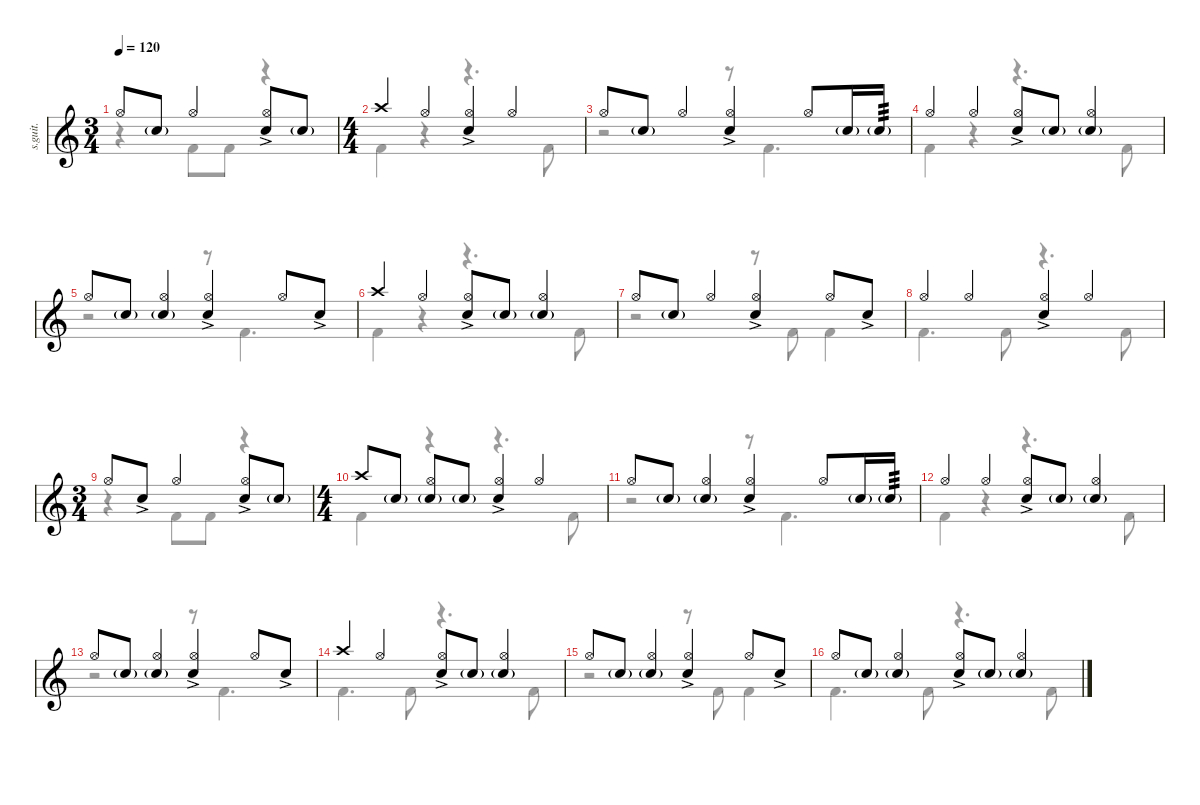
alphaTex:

\defaultSystemsLayout 4
\hideDynamics
\bracketExtendMode nobrackets
\track ("Percussion" "s.guit.") {instrument percussion}
\staff {score}
\articulation defaults
\voice
\ts (3 4)
\beaming (8 2 2 2 2)
\tempo 120
\clef g2
\ks c "Hi-Hat (open)".8{lyrics (0 "") lyrics (1 "") lyrics (2 "") lyrics (3 "") lyrics (4 "") dy mf} "Snare (hit) 2"{g}.8{lyrics (0 "") lyrics (1 "") lyrics (2 "") lyrics (3 "") lyrics (4 "") dy f} "Hi-Hat (open)".4{lyrics (0 "") lyrics (1 "") lyrics (2 "") lyrics (3 "") lyrics (4 "") dy mf}
("Snare (hit) 2"{ac} "Hi-Hat (open)").8{lyrics (0 "") lyrics (1 "") lyrics (2 "") lyrics (3 "") lyrics (4 "")} "Snare (hit) 2"{g}.8{lyrics (0 "") lyrics (1 "") lyrics (2 "") lyrics (3 "") lyrics (4 "") dy f} |
\ts (4 4)
\beaming (8 2 2 2 2)
"Crash high (hit)".4{lyrics (0 "") lyrics (1 "") lyrics (2 "") lyrics (3 "") lyrics (4 "") dy mf} "Hi-Hat (open)".4{lyrics (0 "") lyrics (1 "") lyrics (2 "") lyrics (3 "") lyrics (4 "")} ("Hi-Hat (open)" "Snare (hit) 2"{ac}).4{lyrics (0 "") lyrics (1 "") lyrics (2 "") lyrics (3 "") lyrics (4 "")} "Hi-Hat (open)".4{lyrics (0 "") lyrics (1 "") lyrics (2 "") lyrics (3 "") lyrics (4 "")} |
"Hi-Hat (open)".8{lyrics (0 "") lyrics (1 "") lyrics (2 "") lyrics (3 "") lyrics (4 "")} "Snare (hit) 2"{g}.8{lyrics (0 "") lyrics (1 "") lyrics (2 "") lyrics (3 "") lyrics (4 "") dy f} "Hi-Hat (open)".4{lyrics (0 "") lyrics (1 "") lyrics (2 "") lyrics (3 "") lyrics (4 "") dy mf} ("Snare (hit) 2"{ac} "Hi-Hat (open)").4{lyrics (0 "") lyrics (1 "") lyrics (2 "") lyrics (3 "") lyrics (4 "")} "Hi-Hat (open)".8{lyrics (0 "") lyrics (1 "") lyrics (2 "") lyrics (3 "") lyrics (4 "")} "Snare (hit) 2"{g}.16{lyrics (0 "") lyrics (1 "") lyrics (2 "") lyrics (3 "") lyrics (4 "") dy f} "Snare (hit) 2"{g}.16{lyrics (0 "") lyrics (1 "") lyrics (2 "") lyrics (3 "") lyrics (4 "") tp 3} |
"Hi-Hat (open)".4{lyrics (0 "") lyrics (1 "") lyrics (2 "") lyrics (3 "") lyrics (4 "") dy mf} "Hi-Hat (open)".4{lyrics (0 "") lyrics (1 "") lyrics (2 "") lyrics (3 "") lyrics (4 "")} ("Hi-Hat (open)" "Snare (hit) 2"{ac}).8{lyrics (0 "") lyrics (1 "") lyrics (2 "") lyrics (3 "") lyrics (4 "")} "Snare (hit) 2"{g}.8{lyrics (0 "") lyrics (1 "") lyrics (2 "") lyrics (3 "") lyrics (4 "") dy f} ("Hi-Hat (open)" "Snare (hit) 2"{g}).4{lyrics (0 "") lyrics (1 "") lyrics (2 "") lyrics (3 "") lyrics (4 "") dy mf} |
"Hi-Hat (open)".8{lyrics (0 "") lyrics (1 "") lyrics (2 "") lyrics (3 "") lyrics (4 "")} "Snare (hit) 2"{g}.8{lyrics (0 "") lyrics (1 "") lyrics (2 "") lyrics (3 "") lyrics (4 "") dy f} ("Hi-Hat (open)" "Snare (hit) 2"{g}).4{lyrics (0 "") lyrics (1 "") lyrics (2 "") lyrics (3 "") lyrics (4 "") dy mf} ("Snare (hit) 2"{ac} "Hi-Hat (open)").4{lyrics (0 "") lyrics (1 "") lyrics (2 "") lyrics (3 "") lyrics (4 "")} "Hi-Hat (open)".8{lyrics (0 "") lyrics (1 "") lyrics (2 "") lyrics (3 "") lyrics (4 "")} "Snare (hit) 2"{ac}.8{lyrics (0 "") lyrics (1 "") lyrics (2 "") lyrics (3 "") lyrics (4 "") dy mp} |
"Crash high (hit)".4{lyrics (0 "") lyrics (1 "") lyrics (2 "") lyrics (3 "") lyrics (4 "") dy mf} "Hi-Hat (open)".4{lyrics (0 "") lyrics (1 "") lyrics (2 "") lyrics (3 "") lyrics (4 "")} ("Hi-Hat (open)" "Snare (hit) 2"{ac}).8{lyrics (0 "") lyrics (1 "") lyrics (2 "") lyrics (3 "") lyrics (4 "")} "Snare (hit) 2"{g}.8{lyrics (0 "") lyrics (1 "") lyrics (2 "") lyrics (3 "") lyrics (4 "") dy f} ("Hi-Hat (open)" "Snare (hit) 2"{g}).4{lyrics (0 "") lyrics (1 "") lyrics (2 "") lyrics (3 "") lyrics (4 "") dy mf} |
"Hi-Hat (open)".8{lyrics (0 "") lyrics (1 "") lyrics (2 "") lyrics (3 "") lyrics (4 "")} "Snare (hit) 2"{g}.8{lyrics (0 "") lyrics (1 "") lyrics (2 "") lyrics (3 "") lyrics (4 "") dy f} "Hi-Hat (open)".4{lyrics (0 "") lyrics (1 "") lyrics (2 "") lyrics (3 "") lyrics (4 "") dy mf} ("Snare (hit) 2"{ac} "Hi-Hat (open)").4{lyrics (0 "") lyrics (1 "") lyrics (2 "") lyrics (3 "") lyrics (4 "")} "Hi-Hat (open)".8{lyrics (0 "") lyrics (1 "") lyrics (2 "") lyrics (3 "") lyrics (4 "")} "Snare (hit) 2"{ac}.8{lyrics (0 "") lyrics (1 "") lyrics (2 "") lyrics (3 "") lyrics (4 "") dy mp} |
"Hi-Hat (open)".4{lyrics (0 "") lyrics (1 "") lyrics (2 "") lyrics (3 "") lyrics (4 "") dy mf} "Hi-Hat (open)".4{lyrics (0 "") lyrics (1 "") lyrics (2 "") lyrics (3 "") lyrics (4 "")} ("Hi-Hat (open)" "Snare (hit) 2"{ac}).4{lyrics (0 "") lyrics (1 "") lyrics (2 "") lyrics (3 "") lyrics (4 "")} "Hi-Hat (open)".4{lyrics (0 "") lyrics (1 "") lyrics (2 "") lyrics (3 "") lyrics (4 "")} |
\ts (3 4)
\beaming (8 2 2 2 2)
"Hi-Hat (open)".8{lyrics (0 "") lyrics (1 "") lyrics (2 "") lyrics (3 "") lyrics (4 "")} "Snare (hit) 2"{ac}.8{lyrics (0 "") lyrics (1 "") lyrics (2 "") lyrics (3 "") lyrics (4 "") dy mp} "Hi-Hat (open)".4{lyrics (0 "") lyrics (1 "") lyrics (2 "") lyrics (3 "") lyrics (4 "") dy mf} ("Snare (hit) 2"{ac} "Hi-Hat (open)").8{lyrics (0 "") lyrics (1 "") lyrics (2 "") lyrics (3 "") lyrics (4 "")} "Snare (hit) 2"{g}.8{lyrics (0 "") lyrics (1 "") lyrics (2 "") lyrics (3 "") lyrics (4 "") dy f} |
\ts (4 4)
\beaming (8 2 2 2 2)
"Crash high (hit)".8{lyrics (0 "") lyrics (1 "") lyrics (2 "") lyrics (3 "") lyrics (4 "") dy mf} "Snare (hit) 2"{g}.8{lyrics (0 "") lyrics (1 "") lyrics (2 "") lyrics (3 "") lyrics (4 "") dy f} ("Hi-Hat (open)" "Snare (hit) 2"{g}).8{lyrics (0 "") lyrics (1 "") lyrics (2 "") lyrics (3 "") lyrics (4 "") dy mf} "Snare (hit) 2"{g}.8{lyrics (0 "") lyrics (1 "") lyrics (2 "") lyrics (3 "") lyrics (4 "") dy f} ("Hi-Hat (open)" "Snare (hit) 2"{ac}).4{lyrics (0 "") lyrics (1 "") lyrics (2 "") lyrics (3 "") lyrics (4 "") dy mf} "Hi-Hat (open)".4{lyrics (0 "") lyrics (1 "") lyrics (2 "") lyrics (3 "") lyrics (4 "")} |
"Hi-Hat (open)".8{lyrics (0 "") lyrics (1 "") lyrics (2 "") lyrics (3 "") lyrics (4 "")} "Snare (hit) 2"{g}.8{lyrics (0 "") lyrics (1 "") lyrics (2 "") lyrics (3 "") lyrics (4 "") dy f} ("Hi-Hat (open)" "Snare (hit) 2"{g}).4{lyrics (0 "") lyrics (1 "") lyrics (2 "") lyrics (3 "") lyrics (4 "") dy mf} ("Snare (hit) 2"{ac} "Hi-Hat (open)").4{lyrics (0 "") lyrics (1 "") lyrics (2 "") lyrics (3 "") lyrics (4 "")} "Hi-Hat (open)".8{lyrics (0 "") lyrics (1 "") lyrics (2 "") lyrics (3 "") lyrics (4 "")} "Snare (hit) 2"{g}.16{lyrics (0 "") lyrics (1 "") lyrics (2 "") lyrics (3 "") lyrics (4 "") dy f} "Snare (hit) 2"{g}.16{lyrics (0 "") lyrics (1 "") lyrics (2 "") lyrics (3 "") lyrics (4 "") tp 3} |
"Hi-Hat (open)".4{lyrics (0 "") lyrics (1 "") lyrics (2 "") lyrics (3 "") lyrics (4 "") dy mf} "Hi-Hat (open)".4{lyrics (0 "") lyrics (1 "") lyrics (2 "") lyrics (3 "") lyrics (4 "")} ("Hi-Hat (open)" "Snare (hit) 2"{ac}).8{lyrics (0 "") lyrics (1 "") lyrics (2 "") lyrics (3 "") lyrics (4 "")} "Snare (hit) 2"{g}.8{lyrics (0 "") lyrics (1 "") lyrics (2 "") lyrics (3 "") lyrics (4 "") dy f} ("Hi-Hat (open)" "Snare (hit) 2"{g}).4{lyrics (0 "") lyrics (1 "") lyrics (2 "") lyrics (3 "") lyrics (4 "") dy mf} |
"Hi-Hat (open)".8{lyrics (0 "") lyrics (1 "") lyrics (2 "") lyrics (3 "") lyrics (4 "")} "Snare (hit) 2"{g}.8{lyrics (0 "") lyrics (1 "") lyrics (2 "") lyrics (3 "") lyrics (4 "") dy f} ("Hi-Hat (open)" "Snare (hit) 2"{g}).4{lyrics (0 "") lyrics (1 "") lyrics (2 "") lyrics (3 "") lyrics (4 "") dy mf} ("Snare (hit) 2"{ac} "Hi-Hat (open)").4{lyrics (0 "") lyrics (1 "") lyrics (2 "") lyrics (3 "") lyrics (4 "")} "Hi-Hat (open)".8{lyrics (0 "") lyrics (1 "") lyrics (2 "") lyrics (3 "") lyrics (4 "")} "Snare (hit) 2"{ac}.8{lyrics (0 "") lyrics (1 "") lyrics (2 "") lyrics (3 "") lyrics (4 "") dy mp} |
"Crash high (hit)".4{lyrics (0 "") lyrics (1 "") lyrics (2 "") lyrics (3 "") lyrics (4 "") dy mf} "Hi-Hat (open)".4{lyrics (0 "") lyrics (1 "") lyrics (2 "") lyrics (3 "") lyrics (4 "")} ("Hi-Hat (open)" "Snare (hit) 2"{ac}).8{lyrics (0 "") lyrics (1 "") lyrics (2 "") lyrics (3 "") lyrics (4 "")} "Snare (hit) 2"{g}.8{lyrics (0 "") lyrics (1 "") lyrics (2 "") lyrics (3 "") lyrics (4 "") dy f} ("Hi-Hat (open)" "Snare (hit) 2"{g}).4{lyrics (0 "") lyrics (1 "") lyrics (2 "") lyrics (3 "") lyrics (4 "") dy mf} |
"Hi-Hat (open)".8{lyrics (0 "") lyrics (1 "") lyrics (2 "") lyrics (3 "") lyrics (4 "")} "Snare (hit) 2"{g}.8{lyrics (0 "") lyrics (1 "") lyrics (2 "") lyrics (3 "") lyrics (4 "") dy f} ("Hi-Hat (open)" "Snare (hit) 2"{g}).4{lyrics (0 "") lyrics (1 "") lyrics (2 "") lyrics (3 "") lyrics (4 "") dy mf} ("Snare (hit) 2"{ac} "Hi-Hat (open)").4{lyrics (0 "") lyrics (1 "") lyrics (2 "") lyrics (3 "") lyrics (4 "")} "Hi-Hat (open)".8{lyrics (0 "") lyrics (1 "") lyrics (2 "") lyrics (3 "") lyrics (4 "")} "Snare (hit) 2"{ac}.8{lyrics (0 "") lyrics (1 "") lyrics (2 "") lyrics (3 "") lyrics (4 "") dy mp} |
"Hi-Hat (open)".8{lyrics (0 "") lyrics (1 "") lyrics (2 "") lyrics (3 "") lyrics (4 "") dy mf} "Snare (hit) 2"{g}.8{lyrics (0 "") lyrics (1 "") lyrics (2 "") lyrics (3 "") lyrics (4 "") dy f} ("Hi-Hat (open)" "Snare (hit) 2"{g}).4{lyrics (0 "") lyrics (1 "") lyrics (2 "") lyrics (3 "") lyrics (4 "") dy mf} ("Hi-Hat (open)" "Snare (hit) 2"{ac}).8{lyrics (0 "") lyrics (1 "") lyrics (2 "") lyrics (3 "") lyrics (4 "")} "Snare (hit) 2"{g}.8{lyrics (0 "") lyrics (1 "") lyrics (2 "") lyrics (3 "") lyrics (4 "") dy f} ("Hi-Hat (open)" "Snare (hit) 2"{g}).4{lyrics (0 "") lyrics (1 "") lyrics (2 "") lyrics (3 "") lyrics (4 "") dy mf}
\voice
\clef g2
\ottava regular
\simile none
\ks c
r.4{dy mf} "Kick (hit) 2".8{lyrics (0 "") lyrics (1 "") lyrics (2 "") lyrics (3 "") lyrics (4 "")} "Kick (hit) 2".8{lyrics (0 "") lyrics (1 "") lyrics (2 "") lyrics (3 "") lyrics (4 "")} r.4 |
"Kick (hit) 2".4{lyrics (0 "") lyrics (1 "") lyrics (2 "") lyrics (3 "") lyrics (4 "")} r.4 r.4{d} "Kick (hit) 2".8{lyrics (0 "") lyrics (1 "") lyrics (2 "") lyrics (3 "") lyrics (4 "")} |
r.2 r.8 "Kick (hit) 2".4{d lyrics (0 "") lyrics (1 "") lyrics (2 "") lyrics (3 "") lyrics (4 "")} |
"Kick (hit) 2".4{lyrics (0 "") lyrics (1 "") lyrics (2 "") lyrics (3 "") lyrics (4 "")} r.4 r.4{d} "Kick (hit) 2".8{lyrics (0 "") lyrics (1 "") lyrics (2 "") lyrics (3 "") lyrics (4 "")} |
r.2 r.8 "Kick (hit) 2".4{d lyrics (0 "") lyrics (1 "") lyrics (2 "") lyrics (3 "") lyrics (4 "")} |
"Kick (hit) 2".4{lyrics (0 "") lyrics (1 "") lyrics (2 "") lyrics (3 "") lyrics (4 "")} r.4 r.4{d} "Kick (hit) 2".8{lyrics (0 "") lyrics (1 "") lyrics (2 "") lyrics (3 "") lyrics (4 "")} |
r.2 r.8 "Kick (hit) 2".8{lyrics (0 "") lyrics (1 "") lyrics (2 "") lyrics (3 "") lyrics (4 "")} "Kick (hit) 2".4{lyrics (0 "") lyrics (1 "") lyrics (2 "") lyrics (3 "") lyrics (4 "")} |
"Kick (hit) 2".4{d lyrics (0 "") lyrics (1 "") lyrics (2 "") lyrics (3 "") lyrics (4 "")} "Kick (hit) 2".8{lyrics (0 "") lyrics (1 "") lyrics (2 "") lyrics (3 "") lyrics (4 "")} r.4{d} "Kick (hit) 2".8{lyrics (0 "") lyrics (1 "") lyrics (2 "") lyrics (3 "") lyrics (4 "")} |
r.4 "Kick (hit) 2".8{lyrics (0 "") lyrics (1 "") lyrics (2 "") lyrics (3 "") lyrics (4 "")} "Kick (hit) 2".8{lyrics (0 "") lyrics (1 "") lyrics (2 "") lyrics (3 "") lyrics (4 "")} r.4 |
"Kick (hit) 2".4{lyrics (0 "") lyrics (1 "") lyrics (2 "") lyrics (3 "") lyrics (4 "")} r.4 r.4{d} "Kick (hit) 2".8{lyrics (0 "") lyrics (1 "") lyrics (2 "") lyrics (3 "") lyrics (4 "")} |
r.2 r.8 "Kick (hit) 2".4{d lyrics (0 "") lyrics (1 "") lyrics (2 "") lyrics (3 "") lyrics (4 "")} |
"Kick (hit) 2".4{lyrics (0 "") lyrics (1 "") lyrics (2 "") lyrics (3 "") lyrics (4 "")} r.4 r.4{d} "Kick (hit) 2".8{lyrics (0 "") lyrics (1 "") lyrics (2 "") lyrics (3 "") lyrics (4 "")} |
r.2 r.8 "Kick (hit) 2".4{d lyrics (0 "") lyrics (1 "") lyrics (2 "") lyrics (3 "") lyrics (4 "")} |
"Kick (hit) 2".4{d lyrics (0 "") lyrics (1 "") lyrics (2 "") lyrics (3 "") lyrics (4 "")} "Kick (hit) 2".8{lyrics (0 "") lyrics (1 "") lyrics (2 "") lyrics (3 "") lyrics (4 "")} r.4{d} "Kick (hit) 2".8{lyrics (0 "") lyrics (1 "") lyrics (2 "") lyrics (3 "") lyrics (4 "")} |
r.2 r.8 "Kick (hit) 2".8{lyrics (0 "") lyrics (1 "") lyrics (2 "") lyrics (3 "") lyrics (4 "")} "Kick (hit) 2".4{lyrics (0 "") lyrics (1 "") lyrics (2 "") lyrics (3 "") lyrics (4 "")} |
"Kick (hit) 2".4{d lyrics (0 "") lyrics (1 "") lyrics (2 "") lyrics (3 "") lyrics (4 "")} "Kick (hit) 2".8{lyrics (0 "") lyrics (1 "") lyrics (2 "") lyrics (3 "") lyrics (4 "")} r.4{d} "Kick (hit) 2".8{lyrics (0 "") lyrics (1 "") lyrics (2 "") lyrics (3 "") lyrics (4 "")}
